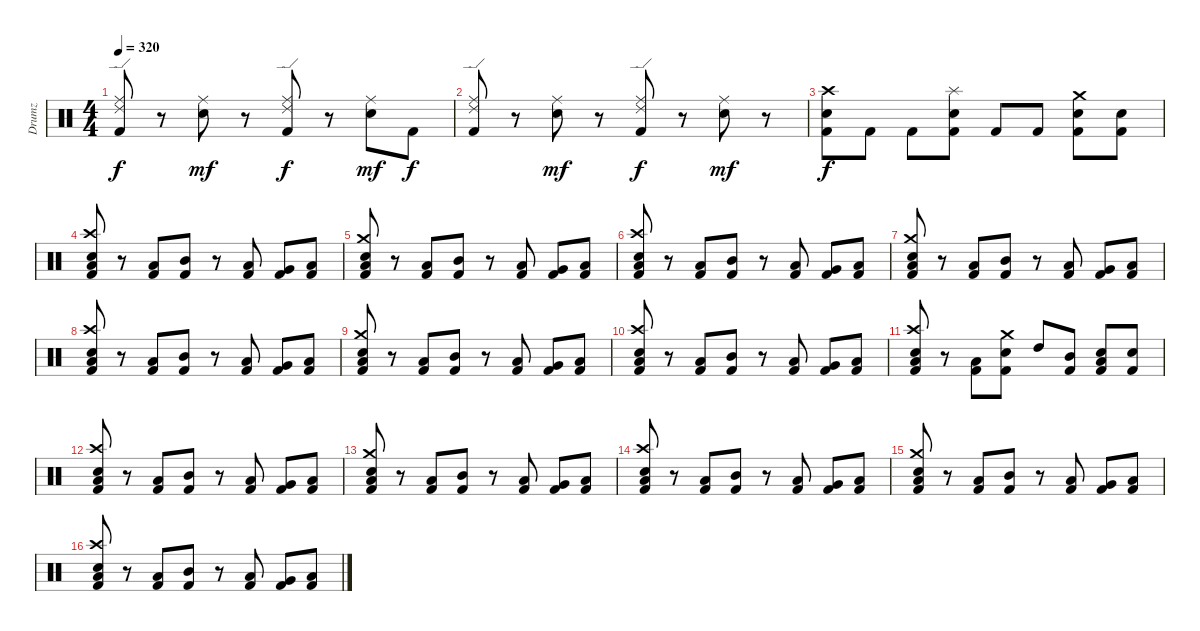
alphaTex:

\track ("Drumz" "Drumz") {instrument percussion}
\staff {score}
\articulation defaults
\ts (4 4)
\tempo 320
\clef neutral
\ks c
("Kick (hit) 2" "Ride (middle)" "Ride (edge) 2").8{dy f} r.8 ("Snare (hit) 2" "Ride (middle)").8{dy mf} r.8 ("Kick (hit) 2" "Ride (middle)" "Ride (edge) 2").8{dy f} r.8 ("Snare (hit) 2" "Ride (middle)").8{dy mf} "Kick (hit) 2".8{dy f} |
("Kick (hit) 2" "Ride (middle)" "Ride (edge) 2").8 r.8 ("Snare (hit) 2" "Ride (middle)").8{dy mf} r.8 ("Kick (hit) 2" "Ride (middle)" "Ride (edge) 2").8{dy f} r.8 ("Snare (hit) 2" "Ride (middle)").8{dy mf} r.8 |
("Snare (hit) 2" "Crash high (hit)" "Kick (hit) 2").8{dy f} "Kick (hit) 2".8 "Kick (hit) 2".8 ("Kick (hit) 2" "Snare (hit) 2" "Splash (hit)").8 "Kick (hit) 2".8 "Kick (hit) 2".8 ("Snare (hit) 2" "Crash medium (hit)" "Kick (hit) 2").8 ("Snare (hit) 2" "Kick (hit) 2").8 |
("Crash high (hit)" "Snare (hit) 2" "Kick (hit) 2" "Low Tom (hit)").8 r.8 ("Kick (hit) 2" "Low Tom (hit)").8 ("Kick (hit) 2" "Mid Tom (hit)").8 r.8 ("Kick (hit) 2" "Low Tom (hit)").8 ("Kick (hit) 2" "Very Low Tom (hit)").8 ("Low Floor Tom (hit)" "Kick (hit) 2").8 |
("Crash medium (hit)" "Snare (hit) 2" "Kick (hit) 2" "Low Tom (hit)").8 r.8 ("Kick (hit) 2" "Low Tom (hit)").8 ("Kick (hit) 2" "Mid Tom (hit)").8 r.8 ("Kick (hit) 2" "Low Tom (hit)").8 ("Kick (hit) 2" "Very Low Tom (hit)").8 ("Low Floor Tom (hit)" "Kick (hit) 2").8 |
("Crash high (hit)" "Snare (hit) 2" "Kick (hit) 2" "Low Tom (hit)").8 r.8 ("Kick (hit) 2" "Low Tom (hit)").8 ("Kick (hit) 2" "Mid Tom (hit)").8 r.8 ("Kick (hit) 2" "Low Tom (hit)").8 ("Kick (hit) 2" "Very Low Tom (hit)").8 ("Low Floor Tom (hit)" "Kick (hit) 2").8 |
("Crash medium (hit)" "Snare (hit) 2" "Kick (hit) 2" "Low Tom (hit)").8 r.8 ("Kick (hit) 2" "Low Tom (hit)").8 ("Kick (hit) 2" "Mid Tom (hit)").8 r.8 ("Kick (hit) 2" "Low Tom (hit)").8 ("Kick (hit) 2" "Very Low Tom (hit)").8 ("Low Floor Tom (hit)" "Kick (hit) 2").8 |
("Crash high (hit)" "Snare (hit) 2" "Kick (hit) 2" "Low Tom (hit)").8 r.8 ("Kick (hit) 2" "Low Tom (hit)").8 ("Kick (hit) 2" "Mid Tom (hit)").8 r.8 ("Kick (hit) 2" "Low Tom (hit)").8 ("Kick (hit) 2" "Very Low Tom (hit)").8 ("Low Floor Tom (hit)" "Kick (hit) 2").8 |
("Crash medium (hit)" "Snare (hit) 2" "Kick (hit) 2" "Low Tom (hit)").8 r.8 ("Kick (hit) 2" "Low Tom (hit)").8 ("Kick (hit) 2" "Mid Tom (hit)").8 r.8 ("Kick (hit) 2" "Low Tom (hit)").8 ("Kick (hit) 2" "Very Low Tom (hit)").8 ("Low Floor Tom (hit)" "Kick (hit) 2").8 |
("Crash high (hit)" "Snare (hit) 2" "Kick (hit) 2" "Low Tom (hit)").8 r.8 ("Kick (hit) 2" "Low Tom (hit)").8 ("Kick (hit) 2" "Mid Tom (hit)").8 r.8 ("Kick (hit) 2" "Low Tom (hit)").8 ("Kick (hit) 2" "Very Low Tom (hit)").8 ("Low Floor Tom (hit)" "Kick (hit) 2").8 |
("Crash high (hit)" "Low Tom (hit)" "Snare (hit) 2" "Kick (hit) 2").8 r.8 ("Low Tom (hit)" "Kick (hit) 2").8 ("Crash medium (hit)" "Snare (hit) 2" "Kick (hit) 2").8 "High Tom (hit)".8 ("Mid Tom (hit)" "Kick (hit) 2").8 ("Snare (hit) 2" "Low Tom (hit)" "Kick (hit) 2").8 ("Snare (hit) 2" "Kick (hit) 2").8 |
("Crash high (hit)" "Snare (hit) 2" "Kick (hit) 2" "Low Tom (hit)").8 r.8 ("Kick (hit) 2" "Low Tom (hit)").8 ("Kick (hit) 2" "Mid Tom (hit)").8 r.8 ("Kick (hit) 2" "Low Tom (hit)").8 ("Kick (hit) 2" "Very Low Tom (hit)").8 ("Low Floor Tom (hit)" "Kick (hit) 2").8 |
("Crash medium (hit)" "Snare (hit) 2" "Kick (hit) 2" "Low Tom (hit)").8 r.8 ("Kick (hit) 2" "Low Tom (hit)").8 ("Kick (hit) 2" "Mid Tom (hit)").8 r.8 ("Kick (hit) 2" "Low Tom (hit)").8 ("Kick (hit) 2" "Very Low Tom (hit)").8 ("Low Floor Tom (hit)" "Kick (hit) 2").8 |
("Crash high (hit)" "Snare (hit) 2" "Kick (hit) 2" "Low Tom (hit)").8 r.8 ("Kick (hit) 2" "Low Tom (hit)").8 ("Kick (hit) 2" "Mid Tom (hit)").8 r.8 ("Kick (hit) 2" "Low Tom (hit)").8 ("Kick (hit) 2" "Very Low Tom (hit)").8 ("Low Floor Tom (hit)" "Kick (hit) 2").8 |
("Crash medium (hit)" "Snare (hit) 2" "Kick (hit) 2" "Low Tom (hit)").8 r.8 ("Kick (hit) 2" "Low Tom (hit)").8 ("Kick (hit) 2" "Mid Tom (hit)").8 r.8 ("Kick (hit) 2" "Low Tom (hit)").8 ("Kick (hit) 2" "Very Low Tom (hit)").8 ("Low Floor Tom (hit)" "Kick (hit) 2").8 |
("Crash high (hit)" "Snare (hit) 2" "Kick (hit) 2" "Low Tom (hit)").8 r.8 ("Kick (hit) 2" "Low Tom (hit)").8 ("Kick (hit) 2" "Mid Tom (hit)").8 r.8 ("Kick (hit) 2" "Low Tom (hit)").8 ("Kick (hit) 2" "Very Low Tom (hit)").8 ("Low Floor Tom (hit)" "Kick (hit) 2").8
